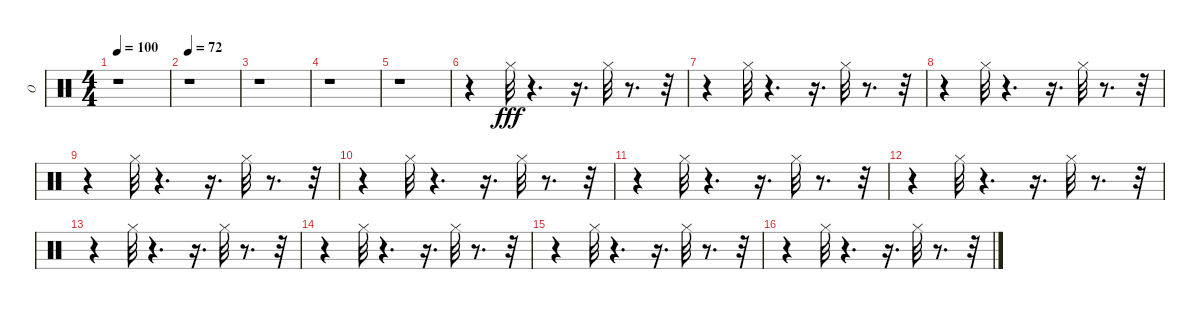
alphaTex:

\track ("O" "O") {instrument percussion}
\staff {score}
\articulation defaults
\ts (4 4)
\tempo 100
\clef neutral
\ks c
r.1{dy fff} |
\tempo 72
r.1 |
r.1 |
r.1 |
r.1 |
r.4 "Hi-Hat (closed)".32 r.4{d} r.16{d} "Hi-Hat (closed)".32 r.8{d} r.32 |
r.4 "Hi-Hat (closed)".32 r.4{d} r.16{d} "Hi-Hat (closed)".32 r.8{d} r.32 |
r.4 "Hi-Hat (closed)".32 r.4{d} r.16{d} "Hi-Hat (closed)".32 r.8{d} r.32 |
r.4 "Hi-Hat (closed)".32 r.4{d} r.16{d} "Hi-Hat (closed)".32 r.8{d} r.32 |
r.4 "Hi-Hat (closed)".32 r.4{d} r.16{d} "Hi-Hat (closed)".32 r.8{d} r.32 |
r.4 "Hi-Hat (closed)".32 r.4{d} r.16{d} "Hi-Hat (closed)".32 r.8{d} r.32 |
r.4 "Hi-Hat (closed)".32 r.4{d} r.16{d} "Hi-Hat (closed)".32 r.8{d} r.32 |
r.4 "Hi-Hat (closed)".32 r.4{d} r.16{d} "Hi-Hat (closed)".32 r.8{d} r.32 |
r.4 "Hi-Hat (closed)".32 r.4{d} r.16{d} "Hi-Hat (closed)".32 r.8{d} r.32 |
r.4 "Hi-Hat (closed)".32 r.4{d} r.16{d} "Hi-Hat (closed)".32 r.8{d} r.32 |
r.4 "Hi-Hat (closed)".32 r.4{d} r.16{d} "Hi-Hat (closed)".32 r.8{d} r.32
